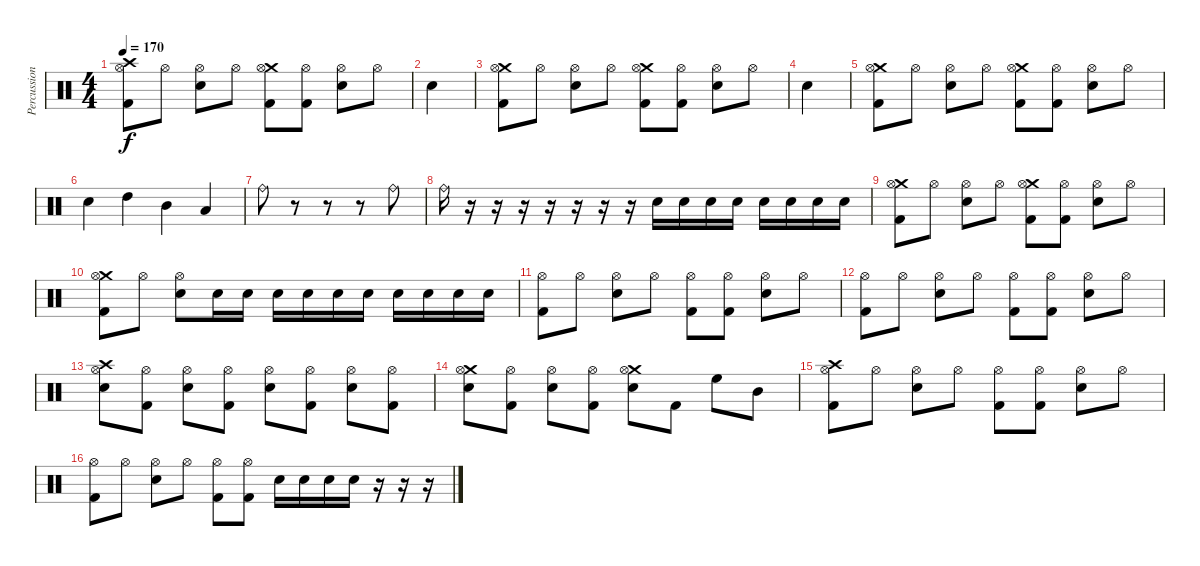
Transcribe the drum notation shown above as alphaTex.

\track ("Percussion" "Percussion") {instrument percussion}
\staff {score}
\articulation defaults
\ts (4 4)
\tempo 170
\clef neutral
\ks c
("Crash high (hit)" "Kick (hit) 2" "Hi-Hat (open)").8{dy f} "Hi-Hat (open)".8 ("Snare (hit) 2" "Hi-Hat (open)").8 "Hi-Hat (open)".8 ("Crash medium (hit)" "Kick (hit) 2" "Hi-Hat (open)").8 ("Kick (hit) 2" "Hi-Hat (open)").8 ("Snare (hit) 2" "Hi-Hat (open)").8 "Hi-Hat (open)".8 |
"Snare (hit) 2".4 |
("Crash medium (hit)" "Kick (hit) 2" "Hi-Hat (open)").8 "Hi-Hat (open)".8 ("Snare (hit) 2" "Hi-Hat (open)").8 "Hi-Hat (open)".8 ("Crash medium (hit)" "Kick (hit) 2" "Hi-Hat (open)").8 ("Kick (hit) 2" "Hi-Hat (open)").8 ("Snare (hit) 2" "Hi-Hat (open)").8 "Hi-Hat (open)".8 |
"Snare (hit) 2".4 |
("Crash medium (hit)" "Kick (hit) 2" "Hi-Hat (open)").8 "Hi-Hat (open)".8 ("Snare (hit) 2" "Hi-Hat (open)").8 "Hi-Hat (open)".8 ("Crash medium (hit)" "Kick (hit) 2" "Hi-Hat (open)").8 ("Kick (hit) 2" "Hi-Hat (open)").8 ("Snare (hit) 2" "Hi-Hat (open)").8 "Hi-Hat (open)".8 |
"Snare (hit) 2".4 "High Tom (hit)".4 "Mid Tom (hit)".4 "Low Tom (hit)".4 |
"Ride (bell)".8 r.8 r.8 r.8 "Ride (bell)".8 |
"Ride (bell)".16 r.16 r.16 r.16 r.16 r.16 r.16 r.16 "Snare (hit) 2".16 "Snare (hit) 2".16 "Snare (hit) 2".16 "Snare (hit) 2".16 "Snare (hit) 2".16 "Snare (hit) 2".16 "Snare (hit) 2".16 "Snare (hit) 2".16 |
("Crash medium (hit)" "Kick (hit) 2" "Hi-Hat (open)").8 "Hi-Hat (open)".8 ("Snare (hit) 2" "Hi-Hat (open)").8 "Hi-Hat (open)".8 ("Crash medium (hit)" "Kick (hit) 2" "Hi-Hat (open)").8 ("Kick (hit) 2" "Hi-Hat (open)").8 ("Snare (hit) 2" "Hi-Hat (open)").8 "Hi-Hat (open)".8 |
("Crash medium (hit)" "Kick (hit) 2" "Hi-Hat (open)").8 "Hi-Hat (open)".8 ("Snare (hit) 2" "Hi-Hat (open)").8 "Snare (hit) 2".16 "Snare (hit) 2".16 "Snare (hit) 2".16 "Snare (hit) 2".16 "Snare (hit) 2".16 "Snare (hit) 2".16 "Snare (hit) 2".16 "Snare (hit) 2".16 "Snare (hit) 2".16 "Snare (hit) 2".16 |
("Kick (hit) 2" "Hi-Hat (open)").8 "Hi-Hat (open)".8 ("Snare (hit) 2" "Hi-Hat (open)").8 "Hi-Hat (open)".8 ("Kick (hit) 2" "Hi-Hat (open)").8 ("Kick (hit) 2" "Hi-Hat (open)").8 ("Snare (hit) 2" "Hi-Hat (open)").8 "Hi-Hat (open)".8 |
("Kick (hit) 2" "Hi-Hat (open)").8 "Hi-Hat (open)".8 ("Snare (hit) 2" "Hi-Hat (open)").8 "Hi-Hat (open)".8 ("Kick (hit) 2" "Hi-Hat (open)").8 ("Kick (hit) 2" "Hi-Hat (open)").8 ("Snare (hit) 2" "Hi-Hat (open)").8 "Hi-Hat (open)".8 |
("Crash high (hit)" "Snare (hit) 2" "Hi-Hat (open)").8 ("Kick (hit) 2" "Hi-Hat (open)").8 ("Snare (hit) 2" "Hi-Hat (open)").8 ("Kick (hit) 2" "Hi-Hat (open)").8 ("Snare (hit) 2" "Hi-Hat (open)").8 ("Kick (hit) 2" "Hi-Hat (open)").8 ("Snare (hit) 2" "Hi-Hat (open)").8 ("Kick (hit) 2" "Hi-Hat (open)").8 |
("Crash medium (hit)" "Snare (hit) 2" "Hi-Hat (open)").8 ("Kick (hit) 2" "Hi-Hat (open)").8 ("Snare (hit) 2" "Hi-Hat (open)").8 ("Kick (hit) 2" "Hi-Hat (open)").8 ("Crash medium (hit)" "Snare (hit) 2" "Hi-Hat (open)").8 "Kick (hit) 2".8 "High Floor Tom (hit)".8 "Mid Tom (hit)".8 |
("Crash high (hit)" "Kick (hit) 2" "Hi-Hat (open)").8 "Hi-Hat (open)".8 ("Snare (hit) 2" "Hi-Hat (open)").8 "Hi-Hat (open)".8 ("Kick (hit) 2" "Hi-Hat (open)").8 ("Kick (hit) 2" "Hi-Hat (open)").8 ("Snare (hit) 2" "Hi-Hat (open)").8 "Hi-Hat (open)".8 |
("Kick (hit) 2" "Hi-Hat (open)").8 "Hi-Hat (open)".8 ("Snare (hit) 2" "Hi-Hat (open)").8 "Hi-Hat (open)".8 ("Kick (hit) 2" "Hi-Hat (open)").8 ("Kick (hit) 2" "Hi-Hat (open)").8 "Snare (hit) 2".16 "Snare (hit) 2".16 "Snare (hit) 2".16 "Snare (hit) 2".16 r.16 r.16 r.16
